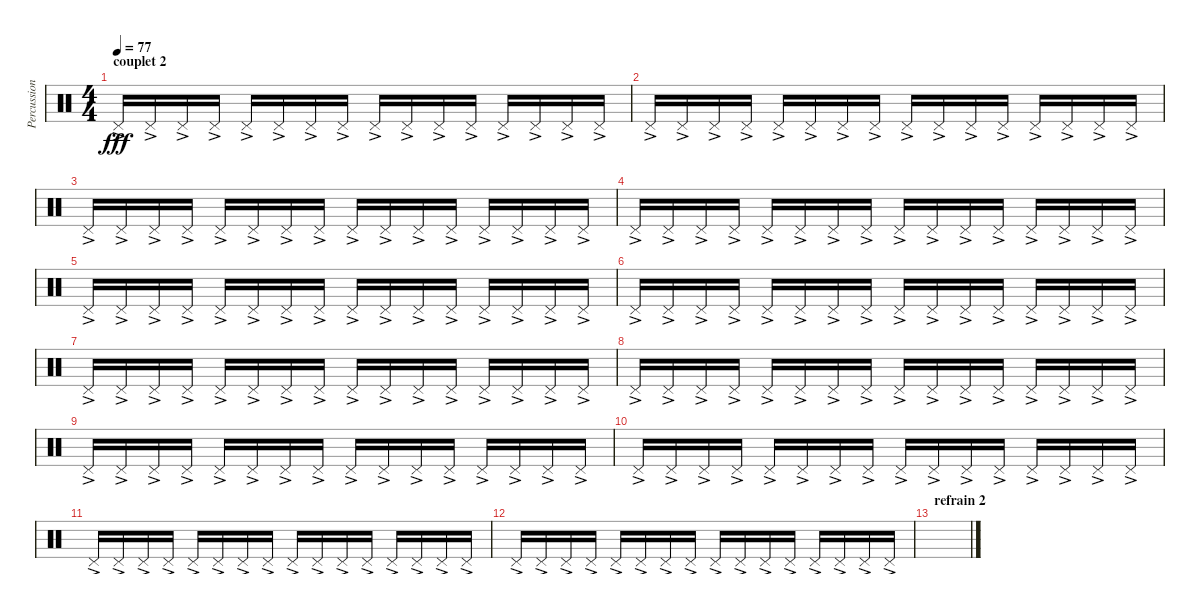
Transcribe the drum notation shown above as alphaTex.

\track ("Percussions (hit-hat)" "Percussion") {instrument percussion}
\staff {score}
\articulation defaults
\ts (4 4)
\section ("" "couplet 2")
\tempo 77
\clef neutral
\ks c "Pedal Hi-Hat (hit)"{ac}.16{dy fff} "Pedal Hi-Hat (hit)"{ac}.16 "Pedal Hi-Hat (hit)"{ac}.16 "Pedal Hi-Hat (hit)"{ac}.16 "Pedal Hi-Hat (hit)"{ac}.16 "Pedal Hi-Hat (hit)"{ac}.16 "Pedal Hi-Hat (hit)"{ac}.16 "Pedal Hi-Hat (hit)"{ac}.16 "Pedal Hi-Hat (hit)"{ac}.16 "Pedal Hi-Hat (hit)"{ac}.16 "Pedal Hi-Hat (hit)"{ac}.16 "Pedal Hi-Hat (hit)"{ac}.16 "Pedal Hi-Hat (hit)"{ac}.16 "Pedal Hi-Hat (hit)"{ac}.16 "Pedal Hi-Hat (hit)"{ac}.16 "Pedal Hi-Hat (hit)"{ac}.16
|
"Pedal Hi-Hat (hit)"{ac}.16 "Pedal Hi-Hat (hit)"{ac}.16 "Pedal Hi-Hat (hit)"{ac}.16 "Pedal Hi-Hat (hit)"{ac}.16 "Pedal Hi-Hat (hit)"{ac}.16 "Pedal Hi-Hat (hit)"{ac}.16 "Pedal Hi-Hat (hit)"{ac}.16 "Pedal Hi-Hat (hit)"{ac}.16 "Pedal Hi-Hat (hit)"{ac}.16 "Pedal Hi-Hat (hit)"{ac}.16 "Pedal Hi-Hat (hit)"{ac}.16 "Pedal Hi-Hat (hit)"{ac}.16 "Pedal Hi-Hat (hit)"{ac}.16 "Pedal Hi-Hat (hit)"{ac}.16 "Pedal Hi-Hat (hit)"{ac}.16 "Pedal Hi-Hat (hit)"{ac}.16 |
"Pedal Hi-Hat (hit)"{ac}.16 "Pedal Hi-Hat (hit)"{ac}.16 "Pedal Hi-Hat (hit)"{ac}.16 "Pedal Hi-Hat (hit)"{ac}.16 "Pedal Hi-Hat (hit)"{ac}.16 "Pedal Hi-Hat (hit)"{ac}.16 "Pedal Hi-Hat (hit)"{ac}.16 "Pedal Hi-Hat (hit)"{ac}.16 "Pedal Hi-Hat (hit)"{ac}.16 "Pedal Hi-Hat (hit)"{ac}.16 "Pedal Hi-Hat (hit)"{ac}.16 "Pedal Hi-Hat (hit)"{ac}.16 "Pedal Hi-Hat (hit)"{ac}.16 "Pedal Hi-Hat (hit)"{ac}.16 "Pedal Hi-Hat (hit)"{ac}.16 "Pedal Hi-Hat (hit)"{ac}.16 |
"Pedal Hi-Hat (hit)"{ac}.16 "Pedal Hi-Hat (hit)"{ac}.16 "Pedal Hi-Hat (hit)"{ac}.16 "Pedal Hi-Hat (hit)"{ac}.16 "Pedal Hi-Hat (hit)"{ac}.16 "Pedal Hi-Hat (hit)"{ac}.16 "Pedal Hi-Hat (hit)"{ac}.16 "Pedal Hi-Hat (hit)"{ac}.16 "Pedal Hi-Hat (hit)"{ac}.16 "Pedal Hi-Hat (hit)"{ac}.16 "Pedal Hi-Hat (hit)"{ac}.16 "Pedal Hi-Hat (hit)"{ac}.16 "Pedal Hi-Hat (hit)"{ac}.16 "Pedal Hi-Hat (hit)"{ac}.16 "Pedal Hi-Hat (hit)"{ac}.16 "Pedal Hi-Hat (hit)"{ac}.16 |
"Pedal Hi-Hat (hit)"{ac}.16 "Pedal Hi-Hat (hit)"{ac}.16 "Pedal Hi-Hat (hit)"{ac}.16 "Pedal Hi-Hat (hit)"{ac}.16 "Pedal Hi-Hat (hit)"{ac}.16 "Pedal Hi-Hat (hit)"{ac}.16 "Pedal Hi-Hat (hit)"{ac}.16 "Pedal Hi-Hat (hit)"{ac}.16 "Pedal Hi-Hat (hit)"{ac}.16 "Pedal Hi-Hat (hit)"{ac}.16 "Pedal Hi-Hat (hit)"{ac}.16 "Pedal Hi-Hat (hit)"{ac}.16 "Pedal Hi-Hat (hit)"{ac}.16 "Pedal Hi-Hat (hit)"{ac}.16 "Pedal Hi-Hat (hit)"{ac}.16 "Pedal Hi-Hat (hit)"{ac}.16 |
"Pedal Hi-Hat (hit)"{ac}.16 "Pedal Hi-Hat (hit)"{ac}.16 "Pedal Hi-Hat (hit)"{ac}.16 "Pedal Hi-Hat (hit)"{ac}.16 "Pedal Hi-Hat (hit)"{ac}.16 "Pedal Hi-Hat (hit)"{ac}.16 "Pedal Hi-Hat (hit)"{ac}.16 "Pedal Hi-Hat (hit)"{ac}.16 "Pedal Hi-Hat (hit)"{ac}.16 "Pedal Hi-Hat (hit)"{ac}.16 "Pedal Hi-Hat (hit)"{ac}.16 "Pedal Hi-Hat (hit)"{ac}.16 "Pedal Hi-Hat (hit)"{ac}.16 "Pedal Hi-Hat (hit)"{ac}.16 "Pedal Hi-Hat (hit)"{ac}.16 "Pedal Hi-Hat (hit)"{ac}.16 |
"Pedal Hi-Hat (hit)"{ac}.16 "Pedal Hi-Hat (hit)"{ac}.16 "Pedal Hi-Hat (hit)"{ac}.16 "Pedal Hi-Hat (hit)"{ac}.16 "Pedal Hi-Hat (hit)"{ac}.16 "Pedal Hi-Hat (hit)"{ac}.16 "Pedal Hi-Hat (hit)"{ac}.16 "Pedal Hi-Hat (hit)"{ac}.16 "Pedal Hi-Hat (hit)"{ac}.16 "Pedal Hi-Hat (hit)"{ac}.16 "Pedal Hi-Hat (hit)"{ac}.16 "Pedal Hi-Hat (hit)"{ac}.16 "Pedal Hi-Hat (hit)"{ac}.16 "Pedal Hi-Hat (hit)"{ac}.16 "Pedal Hi-Hat (hit)"{ac}.16 "Pedal Hi-Hat (hit)"{ac}.16 |
"Pedal Hi-Hat (hit)"{ac}.16 "Pedal Hi-Hat (hit)"{ac}.16 "Pedal Hi-Hat (hit)"{ac}.16 "Pedal Hi-Hat (hit)"{ac}.16 "Pedal Hi-Hat (hit)"{ac}.16 "Pedal Hi-Hat (hit)"{ac}.16 "Pedal Hi-Hat (hit)"{ac}.16 "Pedal Hi-Hat (hit)"{ac}.16 "Pedal Hi-Hat (hit)"{ac}.16 "Pedal Hi-Hat (hit)"{ac}.16 "Pedal Hi-Hat (hit)"{ac}.16 "Pedal Hi-Hat (hit)"{ac}.16 "Pedal Hi-Hat (hit)"{ac}.16 "Pedal Hi-Hat (hit)"{ac}.16 "Pedal Hi-Hat (hit)"{ac}.16 "Pedal Hi-Hat (hit)"{ac}.16 |
"Pedal Hi-Hat (hit)"{ac}.16 "Pedal Hi-Hat (hit)"{ac}.16 "Pedal Hi-Hat (hit)"{ac}.16 "Pedal Hi-Hat (hit)"{ac}.16 "Pedal Hi-Hat (hit)"{ac}.16 "Pedal Hi-Hat (hit)"{ac}.16 "Pedal Hi-Hat (hit)"{ac}.16 "Pedal Hi-Hat (hit)"{ac}.16 "Pedal Hi-Hat (hit)"{ac}.16 "Pedal Hi-Hat (hit)"{ac}.16 "Pedal Hi-Hat (hit)"{ac}.16 "Pedal Hi-Hat (hit)"{ac}.16 "Pedal Hi-Hat (hit)"{ac}.16 "Pedal Hi-Hat (hit)"{ac}.16 "Pedal Hi-Hat (hit)"{ac}.16 "Pedal Hi-Hat (hit)"{ac}.16 |
"Pedal Hi-Hat (hit)"{ac}.16 "Pedal Hi-Hat (hit)"{ac}.16 "Pedal Hi-Hat (hit)"{ac}.16 "Pedal Hi-Hat (hit)"{ac}.16 "Pedal Hi-Hat (hit)"{ac}.16 "Pedal Hi-Hat (hit)"{ac}.16 "Pedal Hi-Hat (hit)"{ac}.16 "Pedal Hi-Hat (hit)"{ac}.16 "Pedal Hi-Hat (hit)"{ac}.16 "Pedal Hi-Hat (hit)"{ac}.16 "Pedal Hi-Hat (hit)"{ac}.16 "Pedal Hi-Hat (hit)"{ac}.16 "Pedal Hi-Hat (hit)"{ac}.16 "Pedal Hi-Hat (hit)"{ac}.16 "Pedal Hi-Hat (hit)"{ac}.16 "Pedal Hi-Hat (hit)"{ac}.16 |
"Pedal Hi-Hat (hit)"{ac}.16 "Pedal Hi-Hat (hit)"{ac}.16 "Pedal Hi-Hat (hit)"{ac}.16 "Pedal Hi-Hat (hit)"{ac}.16 "Pedal Hi-Hat (hit)"{ac}.16 "Pedal Hi-Hat (hit)"{ac}.16 "Pedal Hi-Hat (hit)"{ac}.16 "Pedal Hi-Hat (hit)"{ac}.16 "Pedal Hi-Hat (hit)"{ac}.16 "Pedal Hi-Hat (hit)"{ac}.16 "Pedal Hi-Hat (hit)"{ac}.16 "Pedal Hi-Hat (hit)"{ac}.16 "Pedal Hi-Hat (hit)"{ac}.16 "Pedal Hi-Hat (hit)"{ac}.16 "Pedal Hi-Hat (hit)"{ac}.16 "Pedal Hi-Hat (hit)"{ac}.16 |
"Pedal Hi-Hat (hit)"{ac}.16 "Pedal Hi-Hat (hit)"{ac}.16 "Pedal Hi-Hat (hit)"{ac}.16 "Pedal Hi-Hat (hit)"{ac}.16 "Pedal Hi-Hat (hit)"{ac}.16 "Pedal Hi-Hat (hit)"{ac}.16 "Pedal Hi-Hat (hit)"{ac}.16 "Pedal Hi-Hat (hit)"{ac}.16 "Pedal Hi-Hat (hit)"{ac}.16 "Pedal Hi-Hat (hit)"{ac}.16 "Pedal Hi-Hat (hit)"{ac}.16 "Pedal Hi-Hat (hit)"{ac}.16 "Pedal Hi-Hat (hit)"{ac}.16 "Pedal Hi-Hat (hit)"{ac}.16 "Pedal Hi-Hat (hit)"{ac}.16 "Pedal Hi-Hat (hit)"{ac}.16 |
\section ("" "refrain 2")
